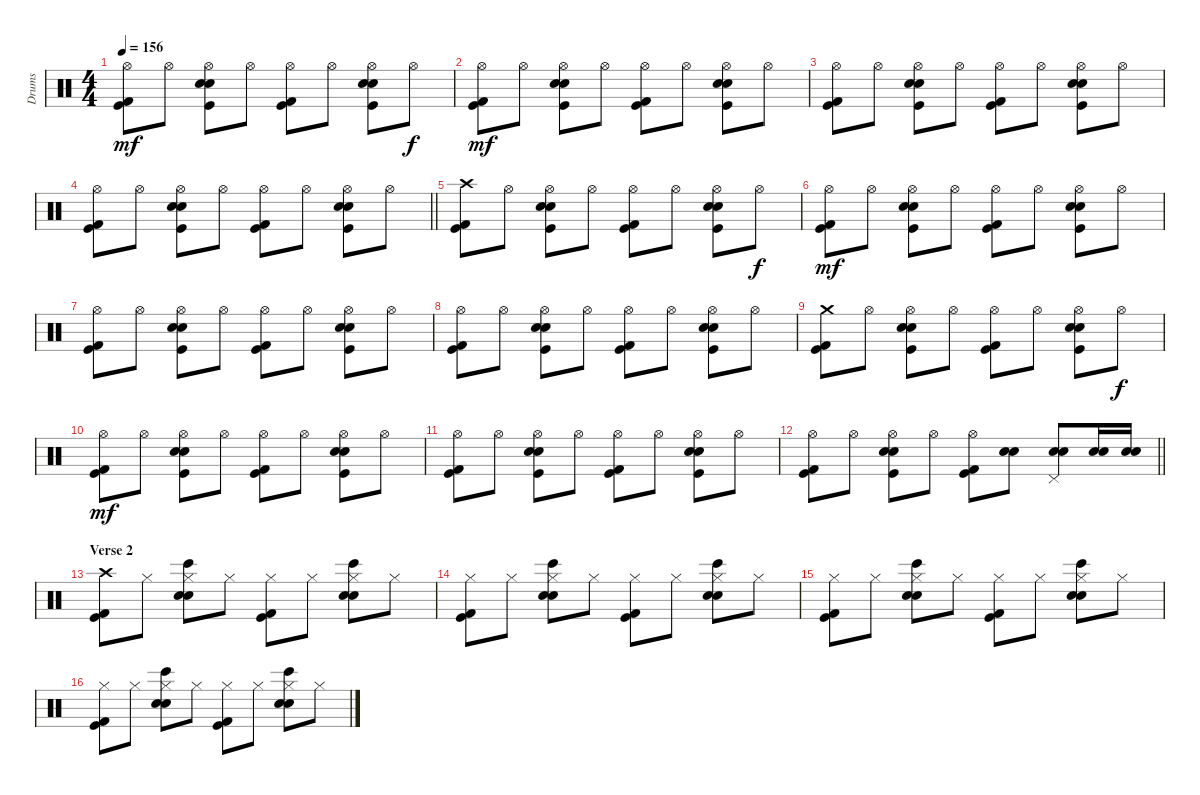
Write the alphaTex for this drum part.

\track ("Drums" "Drums") {instrument percussion}
\staff {score}
\articulation defaults
\ts (4 4)
\tempo 156
\clef neutral
\ks c
("Hi-Hat (open)" "Kick (hit) 2" "Kick (hit)").8{dy mf} "Hi-Hat (open)".8 ("Hi-Hat (open)" "Snare (hit) 2" "Electric Snare (hit)" "Kick (hit)").8 "Hi-Hat (open)".8 ("Hi-Hat (open)" "Kick (hit) 2" "Kick (hit)").8 "Hi-Hat (open)".8 ("Hi-Hat (open)" "Snare (hit) 2" "Electric Snare (hit)" "Kick (hit)").8 "Hi-Hat (open)".8{dy f} |
("Hi-Hat (open)" "Kick (hit) 2" "Kick (hit)").8{dy mf} "Hi-Hat (open)".8 ("Hi-Hat (open)" "Snare (hit) 2" "Electric Snare (hit)" "Kick (hit)").8 "Hi-Hat (open)".8 ("Hi-Hat (open)" "Kick (hit) 2" "Kick (hit)").8 "Hi-Hat (open)".8 ("Hi-Hat (open)" "Snare (hit) 2" "Electric Snare (hit)" "Kick (hit)").8 "Hi-Hat (open)".8 |
("Hi-Hat (open)" "Kick (hit) 2" "Kick (hit)").8 "Hi-Hat (open)".8 ("Hi-Hat (open)" "Snare (hit) 2" "Electric Snare (hit)" "Kick (hit)").8 "Hi-Hat (open)".8 ("Hi-Hat (open)" "Kick (hit) 2" "Kick (hit)").8 "Hi-Hat (open)".8 ("Hi-Hat (open)" "Snare (hit) 2" "Electric Snare (hit)" "Kick (hit)").8 "Hi-Hat (open)".8 |
\barLineRight lightlight
("Hi-Hat (open)" "Kick (hit) 2" "Kick (hit)").8 "Hi-Hat (open)".8 ("Hi-Hat (open)" "Snare (hit) 2" "Electric Snare (hit)" "Kick (hit)").8 "Hi-Hat (open)".8 ("Hi-Hat (open)" "Kick (hit) 2" "Kick (hit)").8 "Hi-Hat (open)".8 ("Hi-Hat (open)" "Snare (hit) 2" "Electric Snare (hit)" "Kick (hit)").8 "Hi-Hat (open)".8 |
("Crash high (hit)" "Kick (hit) 2" "Kick (hit)").8 "Hi-Hat (open)".8 ("Hi-Hat (open)" "Snare (hit) 2" "Electric Snare (hit)" "Kick (hit)").8 "Hi-Hat (open)".8 ("Hi-Hat (open)" "Kick (hit) 2" "Kick (hit)").8 "Hi-Hat (open)".8 ("Hi-Hat (open)" "Snare (hit) 2" "Electric Snare (hit)" "Kick (hit)").8 "Hi-Hat (open)".8{dy f} |
("Hi-Hat (open)" "Kick (hit) 2" "Kick (hit)").8{dy mf} "Hi-Hat (open)".8 ("Hi-Hat (open)" "Snare (hit) 2" "Electric Snare (hit)" "Kick (hit)").8 "Hi-Hat (open)".8 ("Hi-Hat (open)" "Kick (hit) 2" "Kick (hit)").8 "Hi-Hat (open)".8 ("Hi-Hat (open)" "Snare (hit) 2" "Electric Snare (hit)" "Kick (hit)").8 "Hi-Hat (open)".8 |
("Hi-Hat (open)" "Kick (hit) 2" "Kick (hit)").8 "Hi-Hat (open)".8 ("Hi-Hat (open)" "Snare (hit) 2" "Electric Snare (hit)" "Kick (hit)").8 "Hi-Hat (open)".8 ("Hi-Hat (open)" "Kick (hit) 2" "Kick (hit)").8 "Hi-Hat (open)".8 ("Hi-Hat (open)" "Snare (hit) 2" "Electric Snare (hit)" "Kick (hit)").8 "Hi-Hat (open)".8 |
("Hi-Hat (open)" "Kick (hit) 2" "Kick (hit)").8 "Hi-Hat (open)".8 ("Hi-Hat (open)" "Snare (hit) 2" "Electric Snare (hit)" "Kick (hit)").8 "Hi-Hat (open)".8 ("Hi-Hat (open)" "Kick (hit) 2" "Kick (hit)").8 "Hi-Hat (open)".8 ("Hi-Hat (open)" "Snare (hit) 2" "Electric Snare (hit)" "Kick (hit)").8 "Hi-Hat (open)".8 |
("Crash medium (hit)" "Kick (hit) 2" "Kick (hit)").8 "Hi-Hat (open)".8 ("Hi-Hat (open)" "Snare (hit) 2" "Electric Snare (hit)" "Kick (hit)").8 "Hi-Hat (open)".8 ("Hi-Hat (open)" "Kick (hit) 2" "Kick (hit)").8 "Hi-Hat (open)".8 ("Hi-Hat (open)" "Snare (hit) 2" "Electric Snare (hit)" "Kick (hit)").8 "Hi-Hat (open)".8{dy f} |
("Hi-Hat (open)" "Kick (hit) 2" "Kick (hit)").8{dy mf} "Hi-Hat (open)".8 ("Hi-Hat (open)" "Snare (hit) 2" "Electric Snare (hit)" "Kick (hit)").8 "Hi-Hat (open)".8 ("Hi-Hat (open)" "Kick (hit) 2" "Kick (hit)").8 "Hi-Hat (open)".8 ("Hi-Hat (open)" "Snare (hit) 2" "Electric Snare (hit)" "Kick (hit)").8 "Hi-Hat (open)".8 |
("Hi-Hat (open)" "Kick (hit) 2" "Kick (hit)").8 "Hi-Hat (open)".8 ("Hi-Hat (open)" "Snare (hit) 2" "Electric Snare (hit)" "Kick (hit)").8 "Hi-Hat (open)".8 ("Hi-Hat (open)" "Kick (hit) 2" "Kick (hit)").8 "Hi-Hat (open)".8 ("Hi-Hat (open)" "Snare (hit) 2" "Electric Snare (hit)" "Kick (hit)").8 "Hi-Hat (open)".8 |
\barLineRight lightlight
("Hi-Hat (open)" "Kick (hit) 2" "Kick (hit)").8 "Hi-Hat (open)".8 ("Hi-Hat (open)" "Snare (hit) 2" "Electric Snare (hit)" "Kick (hit)").8 "Hi-Hat (open)".8 ("Hi-Hat (open)" "Kick (hit) 2" "Kick (hit)").8 ("Snare (hit) 2" "Electric Snare (hit)").8 ("Pedal Hi-Hat (hit)" "Snare (hit) 2" "Electric Snare (hit)").8 ("Snare (hit) 2" "Electric Snare (hit)").16 ("Snare (hit) 2" "Electric Snare (hit)").16 |
\section ("" "Verse 2")
("Crash high (hit)" "Kick (hit) 2" "Kick (hit)").8 "Hi-Hat (closed)".8 ("Hi-Hat (closed)" "Bongo High (hit)" "Snare (hit) 2" "Electric Snare (hit)").8 "Hi-Hat (closed)".8 ("Hi-Hat (closed)" "Kick (hit) 2" "Kick (hit)").8 "Hi-Hat (closed)".8 ("Hi-Hat (closed)" "Bongo High (hit)" "Snare (hit) 2" "Electric Snare (hit)").8 "Hi-Hat (closed)".8 |
("Hi-Hat (closed)" "Kick (hit) 2" "Kick (hit)").8 "Hi-Hat (closed)".8 ("Hi-Hat (closed)" "Bongo High (hit)" "Snare (hit) 2" "Electric Snare (hit)").8 "Hi-Hat (closed)".8 ("Hi-Hat (closed)" "Kick (hit) 2" "Kick (hit)").8 "Hi-Hat (closed)".8 ("Hi-Hat (closed)" "Bongo High (hit)" "Snare (hit) 2" "Electric Snare (hit)").8 "Hi-Hat (closed)".8 |
("Hi-Hat (closed)" "Kick (hit) 2" "Kick (hit)").8 "Hi-Hat (closed)".8 ("Hi-Hat (closed)" "Bongo High (hit)" "Snare (hit) 2" "Electric Snare (hit)").8 "Hi-Hat (closed)".8 ("Hi-Hat (closed)" "Kick (hit) 2" "Kick (hit)").8 "Hi-Hat (closed)".8 ("Hi-Hat (closed)" "Bongo High (hit)" "Snare (hit) 2" "Electric Snare (hit)").8 "Hi-Hat (closed)".8 |
("Hi-Hat (closed)" "Kick (hit) 2" "Kick (hit)").8 "Hi-Hat (closed)".8 ("Hi-Hat (closed)" "Bongo High (hit)" "Snare (hit) 2" "Electric Snare (hit)").8 "Hi-Hat (closed)".8 ("Hi-Hat (closed)" "Kick (hit) 2" "Kick (hit)").8 "Hi-Hat (closed)".8 ("Hi-Hat (closed)" "Bongo High (hit)" "Snare (hit) 2" "Electric Snare (hit)").8 "Hi-Hat (closed)".8
